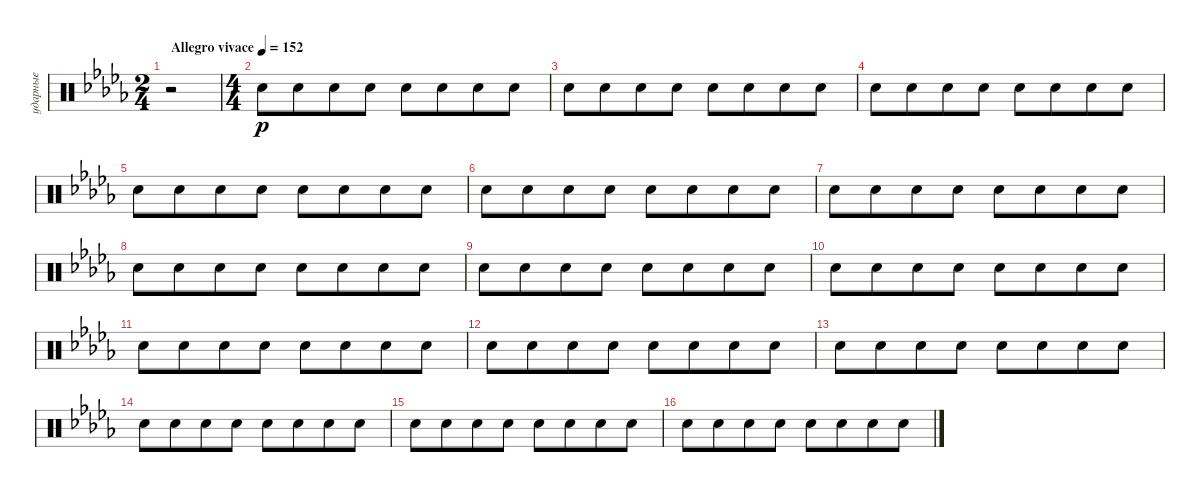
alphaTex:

\track ("ударные" "ударные") {instrument percussion}
\staff {score}
\articulation defaults
\ts (2 4)
\tempo (152 "Allegro vivace")
\clef neutral
\ks bbminor
r.2{dy p} |
\ts (4 4)
"Snare (hit) 2".8 "Snare (hit) 2".8{beam merge} "Snare (hit) 2".8 "Snare (hit) 2".8 "Snare (hit) 2".8 "Snare (hit) 2".8{beam merge} "Snare (hit) 2".8 "Snare (hit) 2".8 |
"Snare (hit) 2".8 "Snare (hit) 2".8{beam merge} "Snare (hit) 2".8 "Snare (hit) 2".8 "Snare (hit) 2".8 "Snare (hit) 2".8{beam merge} "Snare (hit) 2".8 "Snare (hit) 2".8 |
"Snare (hit) 2".8 "Snare (hit) 2".8{beam merge} "Snare (hit) 2".8 "Snare (hit) 2".8 "Snare (hit) 2".8 "Snare (hit) 2".8{beam merge} "Snare (hit) 2".8 "Snare (hit) 2".8 |
"Snare (hit) 2".8 "Snare (hit) 2".8{beam merge} "Snare (hit) 2".8 "Snare (hit) 2".8 "Snare (hit) 2".8 "Snare (hit) 2".8{beam merge} "Snare (hit) 2".8 "Snare (hit) 2".8 |
"Snare (hit) 2".8 "Snare (hit) 2".8{beam merge} "Snare (hit) 2".8 "Snare (hit) 2".8 "Snare (hit) 2".8 "Snare (hit) 2".8{beam merge} "Snare (hit) 2".8 "Snare (hit) 2".8 |
"Snare (hit) 2".8 "Snare (hit) 2".8{beam merge} "Snare (hit) 2".8 "Snare (hit) 2".8 "Snare (hit) 2".8 "Snare (hit) 2".8{beam merge} "Snare (hit) 2".8 "Snare (hit) 2".8 |
"Snare (hit) 2".8 "Snare (hit) 2".8{beam merge} "Snare (hit) 2".8 "Snare (hit) 2".8 "Snare (hit) 2".8 "Snare (hit) 2".8{beam merge} "Snare (hit) 2".8 "Snare (hit) 2".8 |
"Snare (hit) 2".8 "Snare (hit) 2".8{beam merge} "Snare (hit) 2".8 "Snare (hit) 2".8 "Snare (hit) 2".8 "Snare (hit) 2".8{beam merge} "Snare (hit) 2".8 "Snare (hit) 2".8 |
"Snare (hit) 2".8 "Snare (hit) 2".8{beam merge} "Snare (hit) 2".8 "Snare (hit) 2".8 "Snare (hit) 2".8 "Snare (hit) 2".8{beam merge} "Snare (hit) 2".8 "Snare (hit) 2".8 |
"Snare (hit) 2".8 "Snare (hit) 2".8{beam merge} "Snare (hit) 2".8 "Snare (hit) 2".8 "Snare (hit) 2".8 "Snare (hit) 2".8{beam merge} "Snare (hit) 2".8 "Snare (hit) 2".8 |
"Snare (hit) 2".8 "Snare (hit) 2".8{beam merge} "Snare (hit) 2".8 "Snare (hit) 2".8 "Snare (hit) 2".8 "Snare (hit) 2".8{beam merge} "Snare (hit) 2".8 "Snare (hit) 2".8 |
"Snare (hit) 2".8 "Snare (hit) 2".8{beam merge} "Snare (hit) 2".8 "Snare (hit) 2".8 "Snare (hit) 2".8 "Snare (hit) 2".8{beam merge} "Snare (hit) 2".8 "Snare (hit) 2".8 |
"Snare (hit) 2".8 "Snare (hit) 2".8{beam merge} "Snare (hit) 2".8 "Snare (hit) 2".8 "Snare (hit) 2".8 "Snare (hit) 2".8{beam merge} "Snare (hit) 2".8 "Snare (hit) 2".8 |
"Snare (hit) 2".8 "Snare (hit) 2".8{beam merge} "Snare (hit) 2".8 "Snare (hit) 2".8 "Snare (hit) 2".8 "Snare (hit) 2".8{beam merge} "Snare (hit) 2".8 "Snare (hit) 2".8 |
"Snare (hit) 2".8 "Snare (hit) 2".8{beam merge} "Snare (hit) 2".8 "Snare (hit) 2".8 "Snare (hit) 2".8 "Snare (hit) 2".8{beam merge} "Snare (hit) 2".8 "Snare (hit) 2".8
